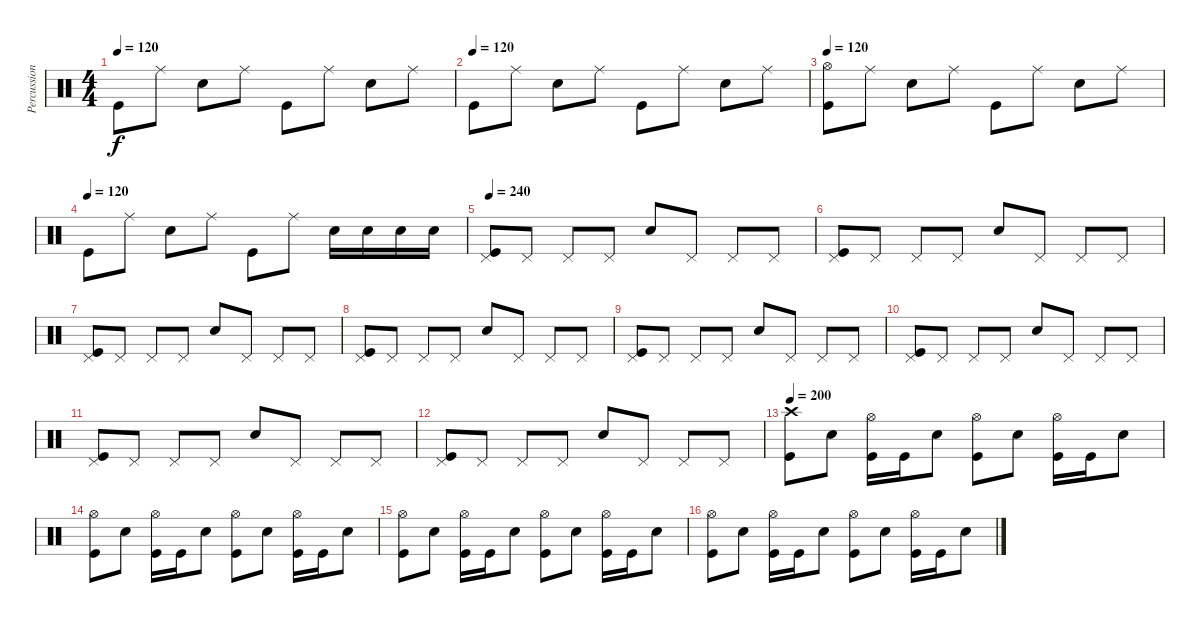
\track ("Percussion" "Percussion") {instrument percussion}
\staff {score}
\articulation defaults
\ts (4 4)
\tempo 120
\clef neutral
\ks c "Kick (hit)".8{dy f} "Ride (middle)".8 "Snare (hit) 2".8 "Ride (middle)".8 "Kick (hit)".8 "Ride (middle)".8 "Snare (hit) 2".8 "Ride (middle)".8
|
\tempo (120)
"Kick (hit)".8 "Ride (middle)".8 "Snare (hit) 2".8 "Ride (middle)".8 "Kick (hit)".8 "Ride (middle)".8 "Snare (hit) 2".8 "Ride (middle)".8 |
\tempo 120
("Hi-Hat (open)" "Kick (hit)").8 "Ride (middle)".8 "Snare (hit) 2".8 "Ride (middle)".8 "Kick (hit)".8 "Ride (middle)".8 "Snare (hit) 2".8 "Ride (middle)".8 |
\tempo (120)
"Kick (hit)".8 "Ride (middle)".8 "Snare (hit) 2".8 "Ride (middle)".8 "Kick (hit)".8 "Ride (middle)".8 "Snare (hit) 2".16 "Snare (hit) 2".16 "Snare (hit) 2".16 "Snare (hit) 2".16 |
\tempo 200
\tempo 240
("Pedal Hi-Hat (hit)" "Kick (hit)").8 "Pedal Hi-Hat (hit)".8 "Pedal Hi-Hat (hit)".8 "Pedal Hi-Hat (hit)".8 "Snare (hit) 2".8 "Pedal Hi-Hat (hit)".8 "Pedal Hi-Hat (hit)".8 "Pedal Hi-Hat (hit)".8 |
("Pedal Hi-Hat (hit)" "Kick (hit)").8 "Pedal Hi-Hat (hit)".8 "Pedal Hi-Hat (hit)".8 "Pedal Hi-Hat (hit)".8 "Snare (hit) 2".8 "Pedal Hi-Hat (hit)".8 "Pedal Hi-Hat (hit)".8 "Pedal Hi-Hat (hit)".8 |
("Pedal Hi-Hat (hit)" "Kick (hit)").8 "Pedal Hi-Hat (hit)".8 "Pedal Hi-Hat (hit)".8 "Pedal Hi-Hat (hit)".8 "Snare (hit) 2".8 "Pedal Hi-Hat (hit)".8 "Pedal Hi-Hat (hit)".8 "Pedal Hi-Hat (hit)".8 |
("Pedal Hi-Hat (hit)" "Kick (hit)").8 "Pedal Hi-Hat (hit)".8 "Pedal Hi-Hat (hit)".8 "Pedal Hi-Hat (hit)".8 "Snare (hit) 2".8 "Pedal Hi-Hat (hit)".8 "Pedal Hi-Hat (hit)".8 "Pedal Hi-Hat (hit)".8 |
("Pedal Hi-Hat (hit)" "Kick (hit)").8 "Pedal Hi-Hat (hit)".8 "Pedal Hi-Hat (hit)".8 "Pedal Hi-Hat (hit)".8 "Snare (hit) 2".8 "Pedal Hi-Hat (hit)".8 "Pedal Hi-Hat (hit)".8 "Pedal Hi-Hat (hit)".8 |
("Pedal Hi-Hat (hit)" "Kick (hit)").8 "Pedal Hi-Hat (hit)".8 "Pedal Hi-Hat (hit)".8 "Pedal Hi-Hat (hit)".8 "Snare (hit) 2".8 "Pedal Hi-Hat (hit)".8 "Pedal Hi-Hat (hit)".8 "Pedal Hi-Hat (hit)".8 |
("Pedal Hi-Hat (hit)" "Kick (hit)").8 "Pedal Hi-Hat (hit)".8 "Pedal Hi-Hat (hit)".8 "Pedal Hi-Hat (hit)".8 "Snare (hit) 2".8 "Pedal Hi-Hat (hit)".8 "Pedal Hi-Hat (hit)".8 "Pedal Hi-Hat (hit)".8 |
("Pedal Hi-Hat (hit)" "Kick (hit)").8 "Pedal Hi-Hat (hit)".8 "Pedal Hi-Hat (hit)".8 "Pedal Hi-Hat (hit)".8 "Snare (hit) 2".8 "Pedal Hi-Hat (hit)".8 "Pedal Hi-Hat (hit)".8 "Pedal Hi-Hat (hit)".8 |
\tempo 200
("Crash high (hit)" "Kick (hit)").8 "Snare (hit) 2".8 ("Hi-Hat (open)" "Kick (hit)").16 "Kick (hit)".16 "Snare (hit) 2".8 ("Hi-Hat (open)" "Kick (hit)").8 "Snare (hit) 2".8 ("Hi-Hat (open)" "Kick (hit)").16 "Kick (hit)".16 "Snare (hit) 2".8 |
("Hi-Hat (open)" "Kick (hit)").8 "Snare (hit) 2".8 ("Hi-Hat (open)" "Kick (hit)").16 "Kick (hit)".16 "Snare (hit) 2".8 ("Hi-Hat (open)" "Kick (hit)").8 "Snare (hit) 2".8 ("Hi-Hat (open)" "Kick (hit)").16 "Kick (hit)".16 "Snare (hit) 2".8 |
("Hi-Hat (open)" "Kick (hit)").8 "Snare (hit) 2".8 ("Hi-Hat (open)" "Kick (hit)").16 "Kick (hit)".16 "Snare (hit) 2".8 ("Hi-Hat (open)" "Kick (hit)").8 "Snare (hit) 2".8 ("Hi-Hat (open)" "Kick (hit)").16 "Kick (hit)".16 "Snare (hit) 2".8 |
("Hi-Hat (open)" "Kick (hit)").8 "Snare (hit) 2".8 ("Hi-Hat (open)" "Kick (hit)").16 "Kick (hit)".16 "Snare (hit) 2".8 ("Hi-Hat (open)" "Kick (hit)").8 "Snare (hit) 2".8 ("Hi-Hat (open)" "Kick (hit)").16 "Kick (hit)".16 "Snare (hit) 2".8
